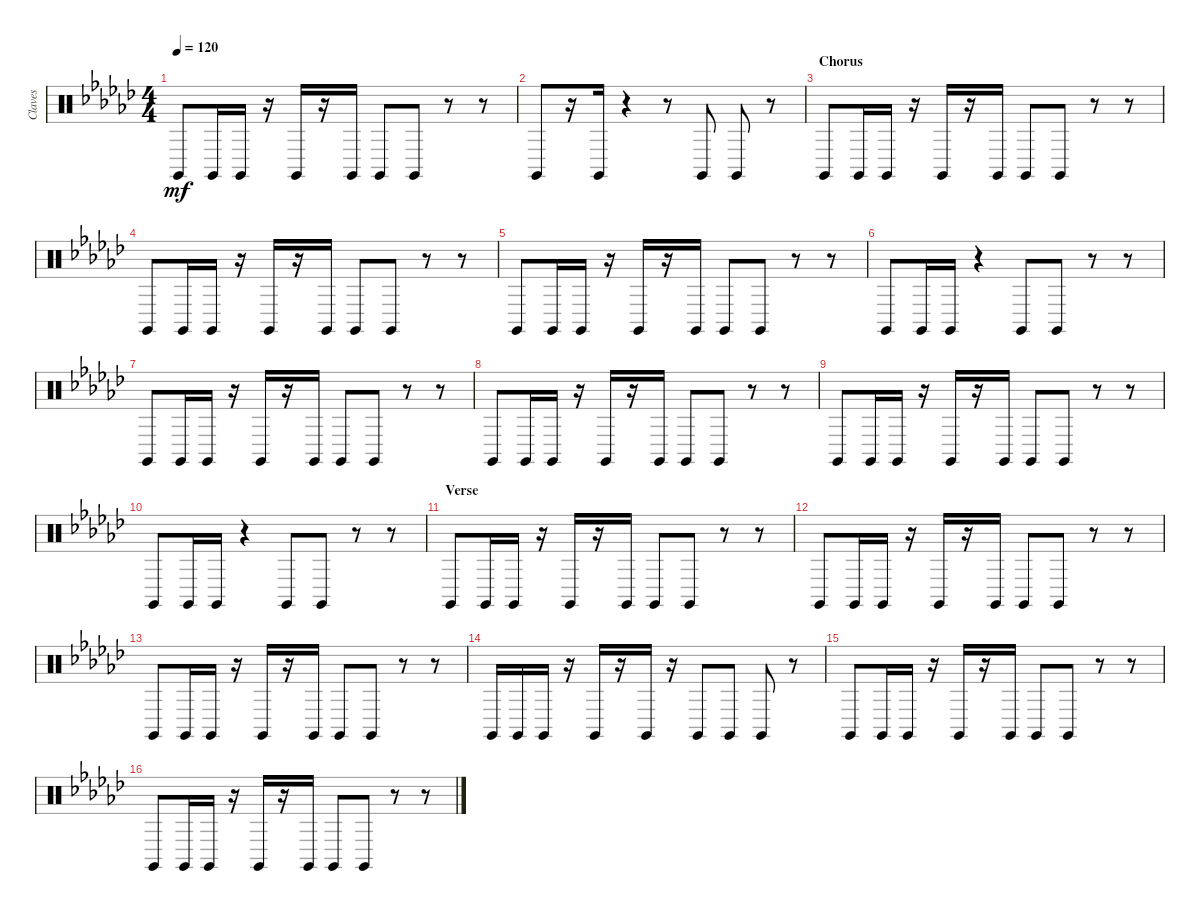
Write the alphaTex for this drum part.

\track ("Claves" "Claves") {instrument percussion}
\staff {score}
\articulation defaults
\ts (4 4)
\tempo 120
\clef neutral
\ks ebminor "Claves (hit)".8{dy mf} "Claves (hit)".16 "Claves (hit)".16
r.16 "Claves (hit)".16 r.16 "Claves (hit)".16 "Claves (hit)".8 "Claves (hit)".8 r.8 r.8 |
"Claves (hit)".8 r.16 "Claves (hit)".16 r.4 r.8 "Claves (hit)".8 "Claves (hit)".8 r.8 |
\section ("" "Chorus")
"Claves (hit)".8 "Claves (hit)".16 "Claves (hit)".16 r.16 "Claves (hit)".16 r.16 "Claves (hit)".16 "Claves (hit)".8 "Claves (hit)".8 r.8 r.8 |
"Claves (hit)".8 "Claves (hit)".16 "Claves (hit)".16 r.16 "Claves (hit)".16 r.16 "Claves (hit)".16 "Claves (hit)".8 "Claves (hit)".8 r.8 r.8 |
"Claves (hit)".8 "Claves (hit)".16 "Claves (hit)".16 r.16 "Claves (hit)".16 r.16 "Claves (hit)".16 "Claves (hit)".8 "Claves (hit)".8 r.8 r.8 |
"Claves (hit)".8 "Claves (hit)".16 "Claves (hit)".16 r.4 "Claves (hit)".8 "Claves (hit)".8 r.8 r.8 |
"Claves (hit)".8 "Claves (hit)".16 "Claves (hit)".16 r.16 "Claves (hit)".16 r.16 "Claves (hit)".16 "Claves (hit)".8 "Claves (hit)".8 r.8 r.8 |
"Claves (hit)".8 "Claves (hit)".16 "Claves (hit)".16 r.16 "Claves (hit)".16 r.16 "Claves (hit)".16 "Claves (hit)".8 "Claves (hit)".8 r.8 r.8 |
"Claves (hit)".8 "Claves (hit)".16 "Claves (hit)".16 r.16 "Claves (hit)".16 r.16 "Claves (hit)".16 "Claves (hit)".8 "Claves (hit)".8 r.8 r.8 |
"Claves (hit)".8 "Claves (hit)".16 "Claves (hit)".16 r.4 "Claves (hit)".8 "Claves (hit)".8 r.8 r.8 |
\section ("" "Verse")
"Claves (hit)".8 "Claves (hit)".16 "Claves (hit)".16 r.16 "Claves (hit)".16 r.16 "Claves (hit)".16 "Claves (hit)".8 "Claves (hit)".8 r.8 r.8 |
"Claves (hit)".8 "Claves (hit)".16 "Claves (hit)".16 r.16 "Claves (hit)".16 r.16 "Claves (hit)".16 "Claves (hit)".8 "Claves (hit)".8 r.8 r.8 |
"Claves (hit)".8 "Claves (hit)".16 "Claves (hit)".16 r.16 "Claves (hit)".16 r.16 "Claves (hit)".16 "Claves (hit)".8 "Claves (hit)".8 r.8 r.8 |
"Claves (hit)".16 "Claves (hit)".16 "Claves (hit)".16 r.16 "Claves (hit)".16 r.16 "Claves (hit)".16 r.16 "Claves (hit)".8 "Claves (hit)".8 "Claves (hit)".8 r.8 |
"Claves (hit)".8 "Claves (hit)".16 "Claves (hit)".16 r.16 "Claves (hit)".16 r.16 "Claves (hit)".16 "Claves (hit)".8 "Claves (hit)".8 r.8 r.8 |
"Claves (hit)".8 "Claves (hit)".16 "Claves (hit)".16 r.16 "Claves (hit)".16 r.16 "Claves (hit)".16 "Claves (hit)".8 "Claves (hit)".8 r.8 r.8
